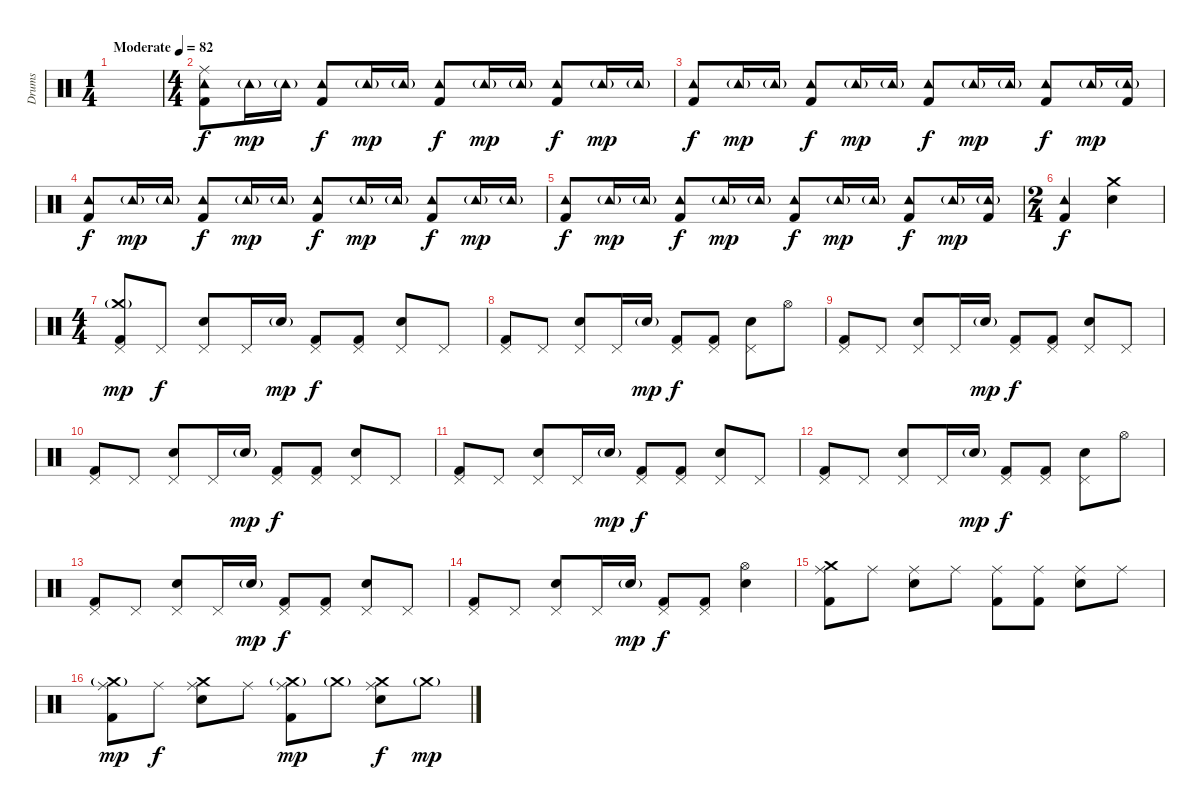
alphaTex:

\track ("Drums" "Drums") {instrument percussion}
\staff {score}
\articulation defaults
\ts (1 4)
\tempo (82 "Moderate")
\clef neutral
\ks c
|
\ts (4 4)
("Tambourine (hit)" "Kick (hit) 2" "Ride (middle)").8 "Tambourine (hit)"{g}.16{dy mp} "Tambourine (hit)"{g}.16 ("Tambourine (hit)" "Kick (hit) 2").8{dy f} "Tambourine (hit)"{g}.16{dy mp} "Tambourine (hit)"{g}.16 ("Tambourine (hit)" "Kick (hit) 2").8{dy f} "Tambourine (hit)"{g}.16{dy mp} "Tambourine (hit)"{g}.16 ("Tambourine (hit)" "Kick (hit) 2").8{dy f} "Tambourine (hit)"{g}.16{dy mp} "Tambourine (hit)"{g}.16 |
("Tambourine (hit)" "Kick (hit) 2").8{dy f} "Tambourine (hit)"{g}.16{dy mp} "Tambourine (hit)"{g}.16 ("Tambourine (hit)" "Kick (hit) 2").8{dy f} "Tambourine (hit)"{g}.16{dy mp} "Tambourine (hit)"{g}.16 ("Tambourine (hit)" "Kick (hit) 2").8{dy f} "Tambourine (hit)"{g}.16{dy mp} "Tambourine (hit)"{g}.16 ("Tambourine (hit)" "Kick (hit) 2").8{dy f} "Tambourine (hit)"{g}.16{dy mp} ("Tambourine (hit)"{g} "Kick (hit) 2").16 |
("Tambourine (hit)" "Kick (hit) 2").8{dy f} "Tambourine (hit)"{g}.16{dy mp} "Tambourine (hit)"{g}.16 ("Tambourine (hit)" "Kick (hit) 2").8{dy f} "Tambourine (hit)"{g}.16{dy mp} "Tambourine (hit)"{g}.16 ("Tambourine (hit)" "Kick (hit) 2").8{dy f} "Tambourine (hit)"{g}.16{dy mp} "Tambourine (hit)"{g}.16 ("Tambourine (hit)" "Kick (hit) 2").8{dy f} "Tambourine (hit)"{g}.16{dy mp} "Tambourine (hit)"{g}.16 |
("Tambourine (hit)" "Kick (hit) 2").8{dy f} "Tambourine (hit)"{g}.16{dy mp} "Tambourine (hit)"{g}.16 ("Tambourine (hit)" "Kick (hit) 2").8{dy f} "Tambourine (hit)"{g}.16{dy mp} "Tambourine (hit)"{g}.16 ("Tambourine (hit)" "Kick (hit) 2").8{dy f} "Tambourine (hit)"{g}.16{dy mp} "Tambourine (hit)"{g}.16 ("Tambourine (hit)" "Kick (hit) 2").8{dy f} "Tambourine (hit)"{g}.16{dy mp} ("Tambourine (hit)"{g} "Kick (hit) 2").16 |
\ts (2 4)
("Tambourine (hit)" "Kick (hit) 2").4{dy f} ("Crash medium (hit)" "Snare (hit) 2").4 |
\ts (4 4)
("Pedal Hi-Hat (hit)" "Kick (hit) 2" "Crash medium (hit)"{g}).8{dy mp} "Pedal Hi-Hat (hit)".8{dy f} ("Pedal Hi-Hat (hit)" "Snare (hit) 2").8 "Pedal Hi-Hat (hit)".16 "Snare (hit) 2"{g}.16{dy mp} ("Pedal Hi-Hat (hit)" "Kick (hit) 2").8{dy f} ("Pedal Hi-Hat (hit)" "Kick (hit) 2").8 ("Pedal Hi-Hat (hit)" "Snare (hit) 2").8 "Pedal Hi-Hat (hit)".8 |
("Pedal Hi-Hat (hit)" "Kick (hit) 2").8 "Pedal Hi-Hat (hit)".8 ("Pedal Hi-Hat (hit)" "Snare (hit) 2").8 "Pedal Hi-Hat (hit)".16 "Snare (hit) 2"{g}.16{dy mp} ("Pedal Hi-Hat (hit)" "Kick (hit) 2").8{dy f} ("Pedal Hi-Hat (hit)" "Kick (hit) 2").8 ("Pedal Hi-Hat (hit)" "Snare (hit) 2").8 "Hi-Hat (open)".8 |
("Pedal Hi-Hat (hit)" "Kick (hit) 2").8 "Pedal Hi-Hat (hit)".8 ("Pedal Hi-Hat (hit)" "Snare (hit) 2").8 "Pedal Hi-Hat (hit)".16 "Snare (hit) 2"{g}.16{dy mp} ("Pedal Hi-Hat (hit)" "Kick (hit) 2").8{dy f} ("Pedal Hi-Hat (hit)" "Kick (hit) 2").8 ("Pedal Hi-Hat (hit)" "Snare (hit) 2").8 "Pedal Hi-Hat (hit)".8 |
("Pedal Hi-Hat (hit)" "Kick (hit) 2").8 "Pedal Hi-Hat (hit)".8 ("Pedal Hi-Hat (hit)" "Snare (hit) 2").8 "Pedal Hi-Hat (hit)".16 "Snare (hit) 2"{g}.16{dy mp} ("Pedal Hi-Hat (hit)" "Kick (hit) 2").8{dy f} ("Pedal Hi-Hat (hit)" "Kick (hit) 2").8 ("Pedal Hi-Hat (hit)" "Snare (hit) 2").8 "Pedal Hi-Hat (hit)".8 |
("Pedal Hi-Hat (hit)" "Kick (hit) 2").8 "Pedal Hi-Hat (hit)".8 ("Pedal Hi-Hat (hit)" "Snare (hit) 2").8 "Pedal Hi-Hat (hit)".16 "Snare (hit) 2"{g}.16{dy mp} ("Pedal Hi-Hat (hit)" "Kick (hit) 2").8{dy f} ("Pedal Hi-Hat (hit)" "Kick (hit) 2").8 ("Pedal Hi-Hat (hit)" "Snare (hit) 2").8 "Pedal Hi-Hat (hit)".8 |
("Pedal Hi-Hat (hit)" "Kick (hit) 2").8 "Pedal Hi-Hat (hit)".8 ("Pedal Hi-Hat (hit)" "Snare (hit) 2").8 "Pedal Hi-Hat (hit)".16 "Snare (hit) 2"{g}.16{dy mp} ("Pedal Hi-Hat (hit)" "Kick (hit) 2").8{dy f} ("Pedal Hi-Hat (hit)" "Kick (hit) 2").8 ("Pedal Hi-Hat (hit)" "Snare (hit) 2").8 "Hi-Hat (open)".8 |
("Pedal Hi-Hat (hit)" "Kick (hit) 2").8 "Pedal Hi-Hat (hit)".8 ("Pedal Hi-Hat (hit)" "Snare (hit) 2").8 "Pedal Hi-Hat (hit)".16 "Snare (hit) 2"{g}.16{dy mp} ("Pedal Hi-Hat (hit)" "Kick (hit) 2").8{dy f} ("Pedal Hi-Hat (hit)" "Kick (hit) 2").8 ("Pedal Hi-Hat (hit)" "Snare (hit) 2").8 "Pedal Hi-Hat (hit)".8 |
("Pedal Hi-Hat (hit)" "Kick (hit) 2").8 "Pedal Hi-Hat (hit)".8 ("Pedal Hi-Hat (hit)" "Snare (hit) 2").8 "Pedal Hi-Hat (hit)".16 "Snare (hit) 2"{g}.16{dy mp} ("Pedal Hi-Hat (hit)" "Kick (hit) 2").8{dy f} ("Pedal Hi-Hat (hit)" "Kick (hit) 2").8 ("Hi-Hat (open)" "Snare (hit) 2").4 |
("Ride (middle)" "Kick (hit) 2" "Crash medium (hit)").8 "Ride (middle)".8 ("Ride (middle)" "Snare (hit) 2").8 "Ride (middle)".8 ("Ride (middle)" "Kick (hit) 2").8 ("Ride (middle)" "Kick (hit) 2").8 ("Ride (middle)" "Snare (hit) 2").8 "Ride (middle)".8 |
("Ride (middle)" "Kick (hit) 2" "Crash medium (hit)"{g}).8{dy mp} "Ride (middle)".8{dy f} ("Ride (middle)" "Snare (hit) 2" "Crash medium (hit)").8 "Ride (middle)".8 ("Ride (middle)" "Kick (hit) 2" "Crash medium (hit)"{g}).8{dy mp} "Crash medium (hit)"{g}.8 ("Ride (middle)" "Snare (hit) 2" "Crash medium (hit)").8{dy f} "Crash medium (hit)"{g}.8{dy mp}
